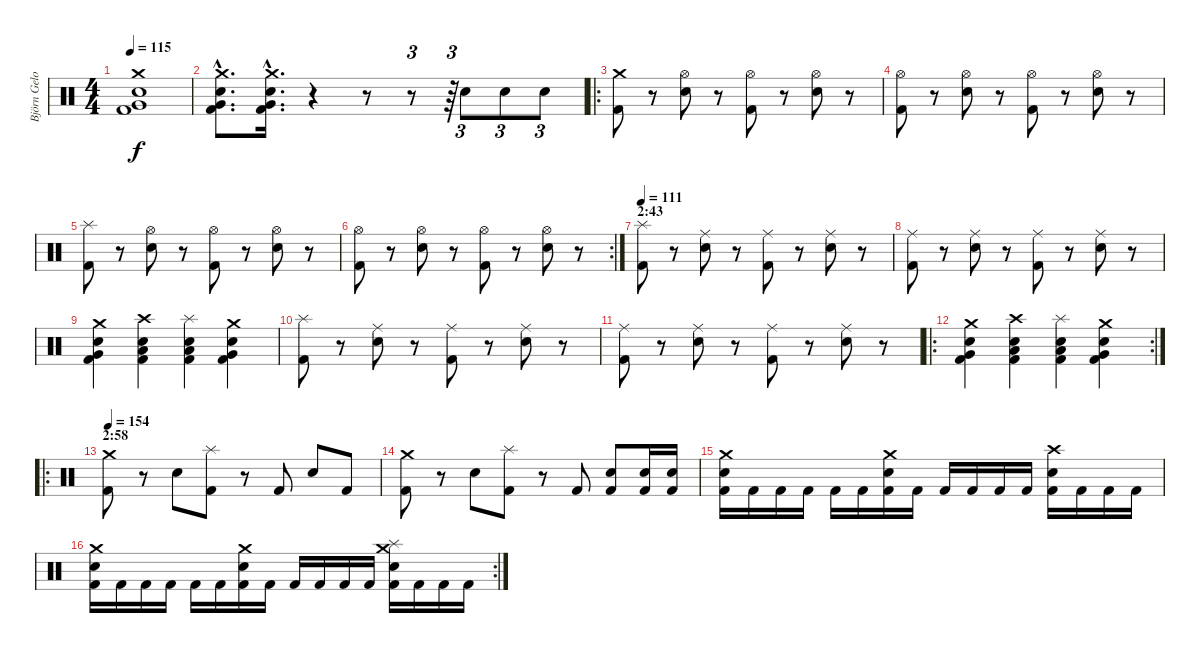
\track ("Björn Gelotte" "Björn Gelo") {instrument percussion}
\staff {score}
\articulation defaults
\ts (4 4)
\tempo 115
\clef neutral
\ks c
("Crash medium (hit)" "Electric Snare (hit)" "Very Low Tom (hit)" "Kick (hit) 2").1{dy f} |
("Crash medium (hit)"{hac} "Electric Snare (hit)"{hac} "Very Low Tom (hit)"{hac} "Kick (hit) 2"{hac}).8{d} ("Crash medium (hit)"{hac} "Electric Snare (hit)"{hac} "Very Low Tom (hit)"{hac} "Kick (hit) 2"{hac}).16{d} r.4 r.8 r.8{tu (3 2)} r.64{tu (3 2)} "Electric Snare (hit)".8{tu (3 2)} "Electric Snare (hit)".8{tu (3 2)} "Electric Snare (hit)".8{tu (3 2)} |
\ro
("Crash medium (hit)" "Kick (hit) 2").8 r.8 ("Hi-Hat (open)" "Electric Snare (hit)").8 r.8 ("Hi-Hat (open)" "Kick (hit) 2").8 r.8 ("Hi-Hat (open)" "Electric Snare (hit)").8 r.8 |
("Hi-Hat (open)" "Kick (hit) 2").8 r.8 ("Hi-Hat (open)" "Electric Snare (hit)").8 r.8 ("Hi-Hat (open)" "Kick (hit) 2").8 r.8 ("Hi-Hat (open)" "Electric Snare (hit)").8 r.8 |
("Splash (hit)" "Kick (hit) 2").8 r.8 ("Hi-Hat (open)" "Electric Snare (hit)").8 r.8 ("Hi-Hat (open)" "Kick (hit) 2").8 r.8 ("Hi-Hat (open)" "Electric Snare (hit)").8 r.8 |
\rc 2
("Hi-Hat (open)" "Kick (hit) 2").8 r.8 ("Hi-Hat (open)" "Electric Snare (hit)").8 r.8 ("Hi-Hat (open)" "Kick (hit) 2").8 r.8 ("Hi-Hat (open)" "Electric Snare (hit)").8 r.8 |
\section ("" "2:43")
\tempo 111
("Splash (hit)" "Kick (hit) 2").8 r.8 ("Ride (middle)" "Electric Snare (hit)").8 r.8 ("Ride (middle)" "Kick (hit) 2").8 r.8 ("Ride (middle)" "Electric Snare (hit)").8 r.8 |
("Ride (middle)" "Kick (hit) 2").8 r.8 ("Ride (middle)" "Electric Snare (hit)").8 r.8 ("Ride (middle)" "Kick (hit) 2").8 r.8 ("Ride (middle)" "Electric Snare (hit)").8 r.8 |
("Crash medium (hit)" "Electric Snare (hit)" "Very Low Tom (hit)" "Kick (hit) 2").4 ("Crash high (hit)" "Electric Snare (hit)" "Low Floor Tom (hit)" "Kick (hit) 2").4 ("Splash (hit)" "Electric Snare (hit)" "Low Tom (hit)" "Kick (hit) 2").4 ("Crash medium (hit)" "Electric Snare (hit)" "Very Low Tom (hit)" "Kick (hit) 2").4 |
("Splash (hit)" "Kick (hit) 2").8 r.8 ("Ride (middle)" "Electric Snare (hit)").8 r.8 ("Ride (middle)" "Kick (hit) 2").8 r.8 ("Ride (middle)" "Electric Snare (hit)").8 r.8 |
("Ride (middle)" "Kick (hit) 2").8 r.8 ("Ride (middle)" "Electric Snare (hit)").8 r.8 ("Ride (middle)" "Kick (hit) 2").8 r.8 ("Ride (middle)" "Electric Snare (hit)").8 r.8 |
\ro
\rc 2
("Crash medium (hit)" "Electric Snare (hit)" "Very Low Tom (hit)" "Kick (hit) 2").4 ("Crash high (hit)" "Electric Snare (hit)" "Low Floor Tom (hit)" "Kick (hit) 2").4 ("Splash (hit)" "Electric Snare (hit)" "Low Tom (hit)" "Kick (hit) 2").4 ("Crash medium (hit)" "Electric Snare (hit)" "Very Low Tom (hit)" "Kick (hit) 2").4 |
\ro
\section ("" "2:58")
\tempo 154
("Crash medium (hit)" "Kick (hit) 2").8 r.8 "Electric Snare (hit)".8 ("Splash (hit)" "Kick (hit) 2").8 r.8 "Kick (hit) 2".8 "Electric Snare (hit)".8 "Kick (hit) 2".8 |
("Crash medium (hit)" "Kick (hit) 2").8 r.8 "Electric Snare (hit)".8 ("Splash (hit)" "Kick (hit) 2").8 r.8 "Kick (hit) 2".8 ("Electric Snare (hit)" "Kick (hit) 2").8 ("Electric Snare (hit)" "Kick (hit) 2").16 ("Electric Snare (hit)" "Kick (hit) 2").16 |
("Crash medium (hit)" "Electric Snare (hit)" "Kick (hit) 2").16 "Kick (hit) 2".16 "Kick (hit) 2".16 "Kick (hit) 2".16 "Kick (hit) 2".16 "Kick (hit) 2".16 ("Crash medium (hit)" "Electric Snare (hit)" "Kick (hit) 2").16 "Kick (hit) 2".16 "Kick (hit) 2".16 "Kick (hit) 2".16 "Kick (hit) 2".16 "Kick (hit) 2".16 ("Crash high (hit)" "Electric Snare (hit)" "Kick (hit) 2").16 "Kick (hit) 2".16 "Kick (hit) 2".16 "Kick (hit) 2".16 |
\rc 2
("Crash medium (hit)" "Electric Snare (hit)" "Kick (hit) 2").16 "Kick (hit) 2".16 "Kick (hit) 2".16 "Kick (hit) 2".16 "Kick (hit) 2".16 "Kick (hit) 2".16 ("Crash medium (hit)" "Electric Snare (hit)" "Kick (hit) 2").16 "Kick (hit) 2".16 "Kick (hit) 2".16 "Kick (hit) 2".16 "Kick (hit) 2".16 "Kick (hit) 2".16 ("Crash medium (hit)" "Splash (hit)" "Electric Snare (hit)" "Kick (hit) 2").16 "Kick (hit) 2".16 "Kick (hit) 2".16 "Kick (hit) 2".16
